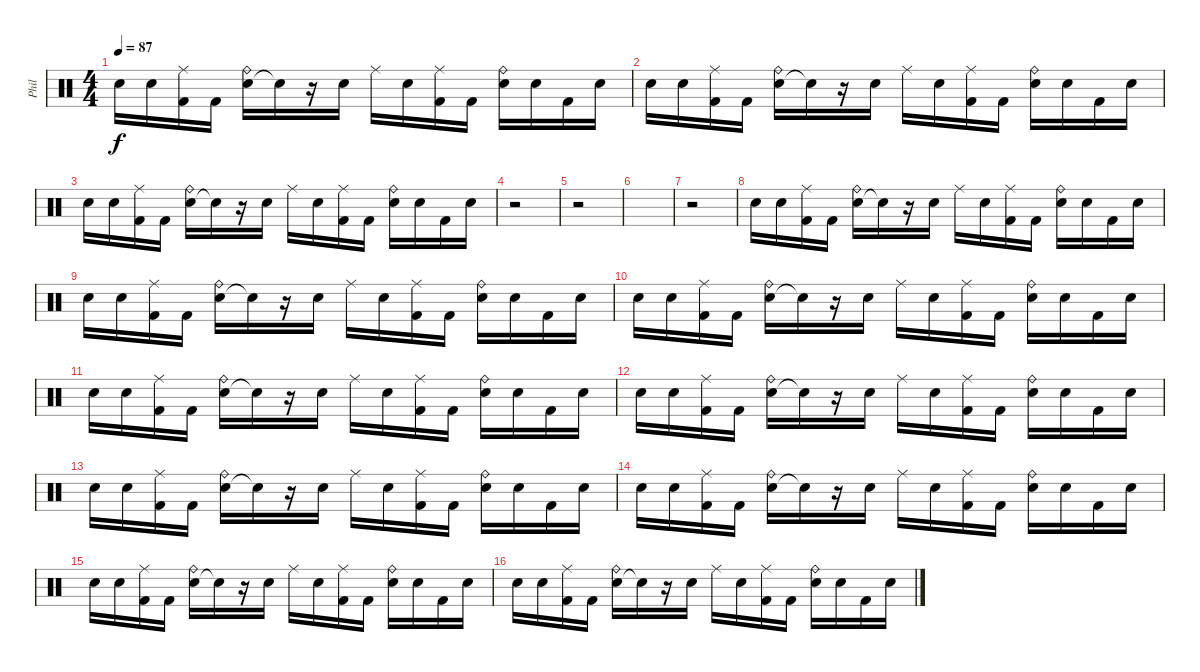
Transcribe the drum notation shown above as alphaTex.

\track ("Phil" "Phil") {instrument percussion}
\staff {score}
\articulation defaults
\ts (4 4)
\tempo 87
\clef neutral
\ks c "Snare (hit) 2".16{dy f} "Snare (hit) 2".16
("Ride (middle)" "Kick (hit) 2").16 "Kick (hit) 2".16 ("Snare (hit) 2" "Ride (bell)").16 "Snare (hit)"{t}.16 r.16 "Snare (hit) 2".16 "Ride (middle)".16 "Snare (hit) 2".16 ("Ride (middle)" "Kick (hit) 2").16 "Kick (hit) 2".16 ("Snare (hit) 2" "Ride (bell)").16 "Snare (hit) 2".16 "Kick (hit) 2".16 "Snare (hit) 2".16 |
"Snare (hit) 2".16 "Snare (hit) 2".16 ("Ride (middle)" "Kick (hit) 2").16 "Kick (hit) 2".16 ("Snare (hit) 2" "Ride (bell)").16 "Snare (hit)"{t}.16 r.16 "Snare (hit) 2".16 "Ride (middle)".16 "Snare (hit) 2".16 ("Ride (middle)" "Kick (hit) 2").16 "Kick (hit) 2".16 ("Snare (hit) 2" "Ride (bell)").16 "Snare (hit) 2".16 "Kick (hit) 2".16 "Snare (hit) 2".16 |
"Snare (hit) 2".16 "Snare (hit) 2".16 ("Ride (middle)" "Kick (hit) 2").16 "Kick (hit) 2".16 ("Snare (hit) 2" "Ride (bell)").16 "Snare (hit)"{t}.16 r.16 "Snare (hit) 2".16 "Ride (middle)".16 "Snare (hit) 2".16 ("Ride (middle)" "Kick (hit) 2").16 "Kick (hit) 2".16 ("Snare (hit) 2" "Ride (bell)").16 "Snare (hit) 2".16 "Kick (hit) 2".16 "Snare (hit) 2".16 |
r.2 |
r.2 |
|
r.2 |
"Snare (hit) 2".16 "Snare (hit) 2".16 ("Ride (middle)" "Kick (hit) 2").16 "Kick (hit) 2".16 ("Snare (hit) 2" "Ride (bell)").16 "Snare (hit)"{t}.16 r.16 "Snare (hit) 2".16 "Ride (middle)".16 "Snare (hit) 2".16 ("Ride (middle)" "Kick (hit) 2").16 "Kick (hit) 2".16 ("Snare (hit) 2" "Ride (bell)").16 "Snare (hit) 2".16 "Kick (hit) 2".16 "Snare (hit) 2".16 |
"Snare (hit) 2".16 "Snare (hit) 2".16 ("Ride (middle)" "Kick (hit) 2").16 "Kick (hit) 2".16 ("Snare (hit) 2" "Ride (bell)").16 "Snare (hit)"{t}.16 r.16 "Snare (hit) 2".16 "Ride (middle)".16 "Snare (hit) 2".16 ("Ride (middle)" "Kick (hit) 2").16 "Kick (hit) 2".16 ("Snare (hit) 2" "Ride (bell)").16 "Snare (hit) 2".16 "Kick (hit) 2".16 "Snare (hit) 2".16 |
"Snare (hit) 2".16 "Snare (hit) 2".16 ("Ride (middle)" "Kick (hit) 2").16 "Kick (hit) 2".16 ("Snare (hit) 2" "Ride (bell)").16 "Snare (hit)"{t}.16 r.16 "Snare (hit) 2".16 "Ride (middle)".16 "Snare (hit) 2".16 ("Ride (middle)" "Kick (hit) 2").16 "Kick (hit) 2".16 ("Snare (hit) 2" "Ride (bell)").16 "Snare (hit) 2".16 "Kick (hit) 2".16 "Snare (hit) 2".16 |
"Snare (hit) 2".16 "Snare (hit) 2".16 ("Ride (middle)" "Kick (hit) 2").16 "Kick (hit) 2".16 ("Snare (hit) 2" "Ride (bell)").16 "Snare (hit)"{t}.16 r.16 "Snare (hit) 2".16 "Ride (middle)".16 "Snare (hit) 2".16 ("Ride (middle)" "Kick (hit) 2").16 "Kick (hit) 2".16 ("Snare (hit) 2" "Ride (bell)").16 "Snare (hit) 2".16 "Kick (hit) 2".16 "Snare (hit) 2".16 |
"Snare (hit) 2".16 "Snare (hit) 2".16 ("Ride (middle)" "Kick (hit) 2").16 "Kick (hit) 2".16 ("Snare (hit) 2" "Ride (bell)").16 "Snare (hit)"{t}.16 r.16 "Snare (hit) 2".16 "Ride (middle)".16 "Snare (hit) 2".16 ("Ride (middle)" "Kick (hit) 2").16 "Kick (hit) 2".16 ("Snare (hit) 2" "Ride (bell)").16 "Snare (hit) 2".16 "Kick (hit) 2".16 "Snare (hit) 2".16 |
"Snare (hit) 2".16 "Snare (hit) 2".16 ("Ride (middle)" "Kick (hit) 2").16 "Kick (hit) 2".16 ("Snare (hit) 2" "Ride (bell)").16 "Snare (hit)"{t}.16 r.16 "Snare (hit) 2".16 "Ride (middle)".16 "Snare (hit) 2".16 ("Ride (middle)" "Kick (hit) 2").16 "Kick (hit) 2".16 ("Snare (hit) 2" "Ride (bell)").16 "Snare (hit) 2".16 "Kick (hit) 2".16 "Snare (hit) 2".16 |
"Snare (hit) 2".16 "Snare (hit) 2".16 ("Ride (middle)" "Kick (hit) 2").16 "Kick (hit) 2".16 ("Snare (hit) 2" "Ride (bell)").16 "Snare (hit)"{t}.16 r.16 "Snare (hit) 2".16 "Ride (middle)".16 "Snare (hit) 2".16 ("Ride (middle)" "Kick (hit) 2").16 "Kick (hit) 2".16 ("Snare (hit) 2" "Ride (bell)").16 "Snare (hit) 2".16 "Kick (hit) 2".16 "Snare (hit) 2".16 |
"Snare (hit) 2".16 "Snare (hit) 2".16 ("Ride (middle)" "Kick (hit) 2").16 "Kick (hit) 2".16 ("Snare (hit) 2" "Ride (bell)").16 "Snare (hit)"{t}.16 r.16 "Snare (hit) 2".16 "Ride (middle)".16 "Snare (hit) 2".16 ("Ride (middle)" "Kick (hit) 2").16 "Kick (hit) 2".16 ("Snare (hit) 2" "Ride (bell)").16 "Snare (hit) 2".16 "Kick (hit) 2".16 "Snare (hit) 2".16 |
"Snare (hit) 2".16 "Snare (hit) 2".16 ("Ride (middle)" "Kick (hit) 2").16 "Kick (hit) 2".16 ("Snare (hit) 2" "Ride (bell)").16 "Snare (hit)"{t}.16 r.16 "Snare (hit) 2".16 "Ride (middle)".16 "Snare (hit) 2".16 ("Ride (middle)" "Kick (hit) 2").16 "Kick (hit) 2".16 ("Snare (hit) 2" "Ride (bell)").16 "Snare (hit) 2".16 "Kick (hit) 2".16 "Snare (hit) 2".16
